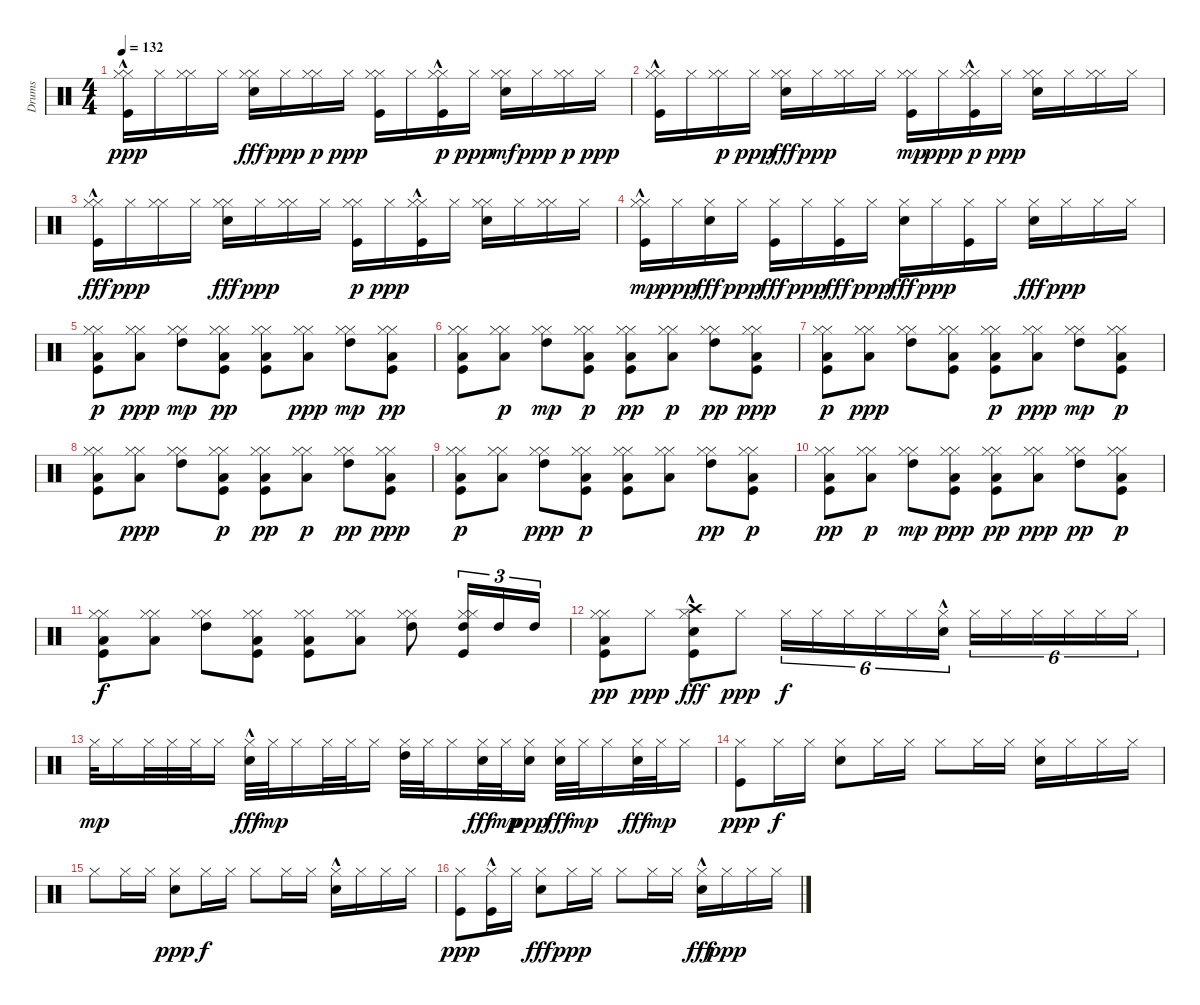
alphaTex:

\track ("Drums" "Drums") {instrument percussion}
\staff {score}
\articulation defaults
\ts (4 4)
\tempo 132
\clef neutral
\ks c
("Kick (hit)"{hac} "Hi-Hat (closed)" "Hi-Hat (closed)").16{dy ppp} "Hi-Hat (closed)".16 ("Hi-Hat (closed)" "Hi-Hat (closed)").16 "Hi-Hat (closed)".16 ("Hi-Hat (closed)" "Hi-Hat (closed)" "Snare (hit) 2").16{dy fff} "Hi-Hat (closed)".16{dy ppp} ("Hi-Hat (closed)" "Hi-Hat (closed)").16{dy p} "Hi-Hat (closed)".16{dy ppp} ("Kick (hit)" "Hi-Hat (closed)" "Hi-Hat (closed)").16 "Hi-Hat (closed)".16 ("Kick (hit)"{hac} "Hi-Hat (closed)" "Hi-Hat (closed)").16{dy p} "Hi-Hat (closed)".16{dy ppp} ("Hi-Hat (closed)" "Snare (hit) 2" "Hi-Hat (closed)").16{dy mf} "Hi-Hat (closed)".16{dy ppp} ("Hi-Hat (closed)" "Hi-Hat (closed)").16{dy p} "Hi-Hat (closed)".16{dy ppp} |
("Kick (hit)"{hac} "Hi-Hat (closed)" "Hi-Hat (closed)").16 "Hi-Hat (closed)".16 ("Hi-Hat (closed)" "Hi-Hat (closed)").16{dy p} "Hi-Hat (closed)".16{dy ppp} ("Hi-Hat (closed)" "Hi-Hat (closed)" "Snare (hit) 2").16{dy fff} "Hi-Hat (closed)".16{dy ppp} ("Hi-Hat (closed)" "Hi-Hat (closed)").16 "Hi-Hat (closed)".16 ("Kick (hit)" "Hi-Hat (closed)" "Hi-Hat (closed)").16{dy mp} "Hi-Hat (closed)".16{dy ppp} ("Kick (hit)"{hac} "Hi-Hat (closed)" "Hi-Hat (closed)").16{dy p} "Hi-Hat (closed)".16{dy ppp} ("Snare (hit) 2" "Hi-Hat (closed)" "Hi-Hat (closed)").16 "Hi-Hat (closed)".16 ("Hi-Hat (closed)" "Hi-Hat (closed)").16 "Hi-Hat (closed)".16 |
("Hi-Hat (closed)" "Hi-Hat (closed)" "Kick (hit)"{hac}).16{dy fff} "Hi-Hat (closed)".16{dy ppp} ("Hi-Hat (closed)" "Hi-Hat (closed)").16 "Hi-Hat (closed)".16 ("Hi-Hat (closed)" "Hi-Hat (closed)" "Snare (hit) 2").16{dy fff} "Hi-Hat (closed)".16{dy ppp} ("Hi-Hat (closed)" "Hi-Hat (closed)").16 "Hi-Hat (closed)".16 ("Kick (hit)" "Hi-Hat (closed)" "Hi-Hat (closed)").16{dy p} "Hi-Hat (closed)".16{dy ppp} ("Kick (hit)"{hac} "Hi-Hat (closed)" "Hi-Hat (closed)").16 "Hi-Hat (closed)".16 ("Hi-Hat (closed)" "Snare (hit) 2" "Hi-Hat (closed)").16 "Hi-Hat (closed)".16 ("Hi-Hat (closed)" "Hi-Hat (closed)").16 "Hi-Hat (closed)".16 |
("Kick (hit)"{hac} "Hi-Hat (closed)" "Hi-Hat (closed)").16{dy mp} "Hi-Hat (closed)".16{dy ppp} ("Hi-Hat (closed)" "Snare (hit) 2").16{dy fff} "Hi-Hat (closed)".16{dy ppp} ("Hi-Hat (closed)" "Kick (hit)").16{dy fff} "Hi-Hat (closed)".16{dy ppp} ("Hi-Hat (closed)" "Kick (hit)").16{dy fff} "Hi-Hat (closed)".16{dy ppp} ("Hi-Hat (closed)" "Snare (hit) 2").16{dy fff} "Hi-Hat (closed)".16{dy ppp} ("Kick (hit)" "Hi-Hat (closed)").16 "Hi-Hat (closed)".16 ("Hi-Hat (closed)" "Snare (hit) 2").16{dy fff} "Hi-Hat (closed)".16{dy ppp} "Hi-Hat (closed)".16 "Hi-Hat (closed)".16 |
("Kick (hit)" "Hi-Hat (closed)" "Low Floor Tom (hit)" "Hi-Hat (closed)").8{dy p} ("Low Floor Tom (hit)" "Hi-Hat (closed)" "Hi-Hat (closed)").8{dy ppp} ("Hi-Hat (closed)" "Hi-Hat (closed)" "High Tom (hit)").8{dy mp} ("Kick (hit)" "Hi-Hat (closed)" "Hi-Hat (closed)" "Low Floor Tom (hit)").8{dy pp} ("Kick (hit)" "Low Floor Tom (hit)" "Hi-Hat (closed)" "Hi-Hat (closed)").8 ("Low Floor Tom (hit)" "Hi-Hat (closed)" "Hi-Hat (closed)").8{dy ppp} ("Hi-Hat (closed)" "Hi-Hat (closed)" "High Tom (hit)").8{dy mp} ("Hi-Hat (closed)" "Kick (hit)" "Hi-Hat (closed)" "Low Floor Tom (hit)").8{dy pp} |
("Kick (hit)" "Low Floor Tom (hit)" "Hi-Hat (closed)" "Hi-Hat (closed)").8 ("Hi-Hat (closed)" "Hi-Hat (closed)" "Low Floor Tom (hit)").8{dy p} ("Hi-Hat (closed)" "Hi-Hat (closed)" "High Tom (hit)").8{dy mp} ("Kick (hit)" "Low Floor Tom (hit)" "Hi-Hat (closed)" "Hi-Hat (closed)").8{dy p} ("Hi-Hat (closed)" "Kick (hit)" "Low Floor Tom (hit)" "Hi-Hat (closed)").8{dy pp} ("Low Floor Tom (hit)" "Hi-Hat (closed)" "Hi-Hat (closed)").8{dy p} ("Hi-Hat (closed)" "High Tom (hit)" "Hi-Hat (closed)").8{dy pp} ("Low Floor Tom (hit)" "Kick (hit)" "Hi-Hat (closed)" "Hi-Hat (closed)").8{dy ppp} |
("Hi-Hat (closed)" "Kick (hit)" "Hi-Hat (closed)" "Low Floor Tom (hit)").8{dy p} ("Low Floor Tom (hit)" "Hi-Hat (closed)" "Hi-Hat (closed)").8{dy ppp} ("Hi-Hat (closed)" "High Tom (hit)" "Hi-Hat (closed)").8 ("Kick (hit)" "Low Floor Tom (hit)" "Hi-Hat (closed)" "Hi-Hat (closed)").8 ("Hi-Hat (closed)" "Kick (hit)" "Hi-Hat (closed)" "Low Floor Tom (hit)").8{dy p} ("Low Floor Tom (hit)" "Hi-Hat (closed)" "Hi-Hat (closed)").8{dy ppp} ("Hi-Hat (closed)" "Hi-Hat (closed)" "High Tom (hit)").8{dy mp} ("Kick (hit)" "Low Floor Tom (hit)" "Hi-Hat (closed)" "Hi-Hat (closed)").8{dy p} |
("Kick (hit)" "Hi-Hat (closed)" "Hi-Hat (closed)" "Low Floor Tom (hit)").8 ("Hi-Hat (closed)" "Low Floor Tom (hit)" "Hi-Hat (closed)").8{dy ppp} ("High Tom (hit)" "Hi-Hat (closed)" "Hi-Hat (closed)").8 ("Kick (hit)" "Hi-Hat (closed)" "Hi-Hat (closed)" "Low Floor Tom (hit)").8{dy p} ("Kick (hit)" "Low Floor Tom (hit)" "Hi-Hat (closed)" "Hi-Hat (closed)").8{dy pp} ("Hi-Hat (closed)" "Low Floor Tom (hit)" "Hi-Hat (closed)").8{dy p} ("Hi-Hat (closed)" "High Tom (hit)" "Hi-Hat (closed)").8{dy pp} ("Kick (hit)" "Low Floor Tom (hit)" "Hi-Hat (closed)" "Hi-Hat (closed)").8{dy ppp} |
("Kick (hit)" "Hi-Hat (closed)" "Hi-Hat (closed)" "Low Floor Tom (hit)").8{dy p} ("Low Floor Tom (hit)" "Hi-Hat (closed)" "Hi-Hat (closed)").8 ("Hi-Hat (closed)" "High Tom (hit)" "Hi-Hat (closed)").8{dy ppp} ("Hi-Hat (closed)" "Kick (hit)" "Hi-Hat (closed)" "Low Floor Tom (hit)").8{dy p} ("Kick (hit)" "Low Floor Tom (hit)" "Hi-Hat (closed)" "Hi-Hat (closed)").8 ("Low Floor Tom (hit)" "Hi-Hat (closed)" "Hi-Hat (closed)").8 ("High Tom (hit)" "Hi-Hat (closed)" "Hi-Hat (closed)").8{dy pp} ("Kick (hit)" "Hi-Hat (closed)" "Hi-Hat (closed)" "Low Floor Tom (hit)").8{dy p} |
("Kick (hit)" "Low Floor Tom (hit)" "Hi-Hat (closed)" "Hi-Hat (closed)").8{dy pp} ("Hi-Hat (closed)" "Hi-Hat (closed)" "Low Floor Tom (hit)").8{dy p} ("High Tom (hit)" "Hi-Hat (closed)" "Hi-Hat (closed)").8{dy mp} ("Kick (hit)" "Low Floor Tom (hit)" "Hi-Hat (closed)" "Hi-Hat (closed)").8{dy ppp} ("Kick (hit)" "Hi-Hat (closed)" "Low Floor Tom (hit)" "Hi-Hat (closed)").8{dy pp} ("Low Floor Tom (hit)" "Hi-Hat (closed)" "Hi-Hat (closed)").8{dy ppp} ("High Tom (hit)" "Hi-Hat (closed)" "Hi-Hat (closed)").8{dy pp} ("Kick (hit)" "Low Floor Tom (hit)" "Hi-Hat (closed)" "Hi-Hat (closed)").8{dy p} |
("Kick (hit)" "Hi-Hat (closed)" "Hi-Hat (closed)" "Low Floor Tom (hit)").8{dy f} ("Low Floor Tom (hit)" "Hi-Hat (closed)" "Hi-Hat (closed)").8 ("Hi-Hat (closed)" "Hi-Hat (closed)" "High Tom (hit)").8 ("Hi-Hat (closed)" "Kick (hit)" "Low Floor Tom (hit)" "Hi-Hat (closed)").8 ("Kick (hit)" "Hi-Hat (closed)" "Hi-Hat (closed)" "Low Floor Tom (hit)").8 ("Hi-Hat (closed)" "Hi-Hat (closed)" "Low Floor Tom (hit)").8 ("Hi-Hat (closed)" "High Tom (hit)" "Hi-Hat (closed)").8 ("Kick (hit)" "Hi-Hat (closed)" "High Tom (hit)" "Hi-Hat (closed)").16{tu (3 2)} "High Tom (hit)".16{tu (3 2)} "High Tom (hit)".16{tu (3 2)} |
("Low Floor Tom (hit)" "Kick (hit)" "Hi-Hat (closed)" "Hi-Hat (closed)").8{dy pp} "Hi-Hat (closed)".8{dy ppp} ("Kick (hit)" "Hi-Hat (closed)" "Crash high (hit)"{hac} "Snare (hit) 2").8{dy fff} "Hi-Hat (closed)".8{dy ppp} "Hi-Hat (closed)".16{tu (6 4) dy f} "Hi-Hat (closed)".16{tu (6 4)} "Hi-Hat (closed)".16{tu (6 4)} "Hi-Hat (closed)".16{tu (6 4)} "Hi-Hat (closed)".16{tu (6 4)} ("Hi-Hat (closed)" "Snare (hit) 2"{hac}).16{tu (6 4)} "Hi-Hat (closed)".16{tu (6 4)} "Hi-Hat (closed)".16{tu (6 4)} "Hi-Hat (closed)".16{tu (6 4)} "Hi-Hat (closed)".16{tu (6 4)} "Hi-Hat (closed)".16{tu (6 4)} "Hi-Hat (closed)".16{tu (6 4)} |
"Hi-Hat (closed)".32{dy mp} "Hi-Hat (closed)".16 "Hi-Hat (closed)".32 "Hi-Hat (closed)".32 "Hi-Hat (closed)".32 "Hi-Hat (closed)".16 ("Hi-Hat (closed)" "Snare (hit) 2"{hac}).32{dy fff} "Hi-Hat (closed)".32{dy mp} "Hi-Hat (closed)".16 "Hi-Hat (closed)".32 "Hi-Hat (closed)".32 "Hi-Hat (closed)".16 ("Hi-Hat (closed)" "High Tom (hit)").32 "Hi-Hat (closed)".32 "Hi-Hat (closed)".16 ("Hi-Hat (closed)" "Snare (hit) 2").32{dy fff} "Hi-Hat (closed)".32{dy mp} ("Snare (hit) 2" "Hi-Hat (closed)").16{dy ppp} ("Hi-Hat (closed)" "Snare (hit) 2").32{dy fff} "Hi-Hat (closed)".32{dy mp} "Hi-Hat (closed)".16 ("Hi-Hat (closed)" "Snare (hit) 2").32{dy fff} "Hi-Hat (closed)".32{dy mp} "Hi-Hat (closed)".16 |
("Kick (hit)" "Hi-Hat (closed)").8{dy ppp} "Hi-Hat (closed)".16{dy f} "Hi-Hat (closed)".16 ("Hi-Hat (closed)" "Snare (hit) 2").8 "Hi-Hat (closed)".16 "Hi-Hat (closed)".16 "Hi-Hat (closed)".8 "Hi-Hat (closed)".16 "Hi-Hat (closed)".16 ("Hi-Hat (closed)" "Snare (hit) 2").16 "Hi-Hat (closed)".16 "Hi-Hat (closed)".16 "Hi-Hat (closed)".16 |
"Hi-Hat (closed)".8 "Hi-Hat (closed)".16 "Hi-Hat (closed)".16 ("Snare (hit) 2" "Hi-Hat (closed)").8{dy ppp} "Hi-Hat (closed)".16{dy f} "Hi-Hat (closed)".16 "Hi-Hat (closed)".8 "Hi-Hat (closed)".16 "Hi-Hat (closed)".16 ("Hi-Hat (closed)" "Snare (hit) 2"{hac}).16 "Hi-Hat (closed)".16 "Hi-Hat (closed)".16 "Hi-Hat (closed)".16 |
("Kick (hit)" "Hi-Hat (closed)").8{dy ppp} ("Kick (hit)"{hac} "Hi-Hat (closed)").16 "Hi-Hat (closed)".16 ("Hi-Hat (closed)" "Snare (hit) 2").8{dy fff} "Hi-Hat (closed)".16{dy ppp} "Hi-Hat (closed)".16 "Hi-Hat (closed)".8 "Hi-Hat (closed)".16 "Hi-Hat (closed)".16 ("Hi-Hat (closed)" "Snare (hit) 2"{hac}).16{dy fff} "Hi-Hat (closed)".16{dy ppp} "Hi-Hat (closed)".16 "Hi-Hat (closed)".16
